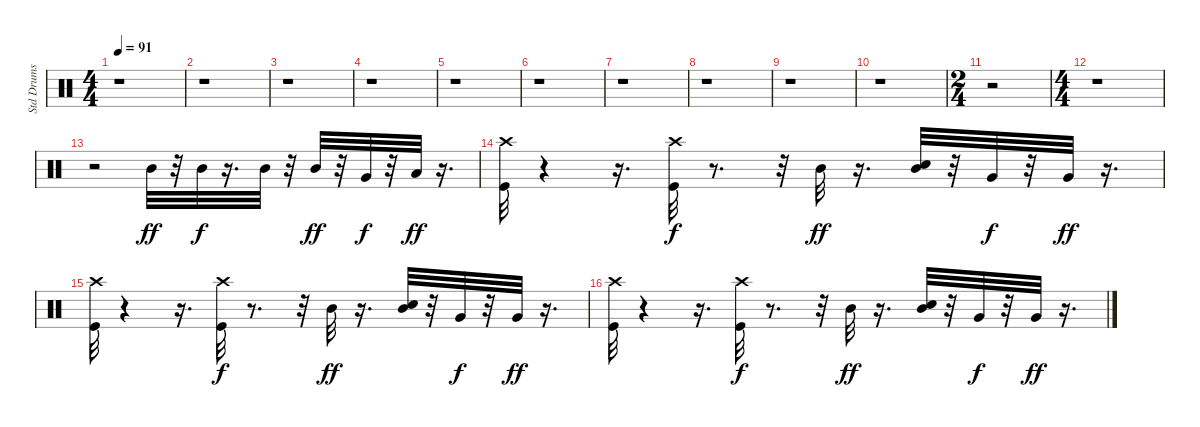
\track ("Std Drums" "Std Drums") {instrument percussion}
\staff {score}
\articulation defaults
\ts (4 4)
\tempo 91
\clef neutral
\ks c
r.1{dy ff} |
r.1 |
r.1 |
r.1 |
r.1 |
r.1 |
r.1 |
r.1 |
r.1 |
r.1 |
\ts (2 4)
r.2 |
\ts (4 4)
r.1 |
r.2 "Mid Tom (hit)".32 r.32 "Mid Tom (hit)".32{dy f} r.16{d} "Mid Tom (hit)".32 r.32 "Mid Tom (hit)".32{dy ff} r.32 "Very Low Tom (hit)".32{dy f} r.32 "Low Tom (hit)".32{dy ff} r.16{d} |
("Kick (hit)" "Crash high (hit)").32 r.4 r.16{d} ("Crash high (hit)" "Kick (hit)").32{dy f} r.8{d} r.32 "Mid Tom (hit)".32{dy ff} r.16{d} ("Snare (hit) 2" "Mid Tom (hit)").32 r.32 "Very Low Tom (hit)".32{dy f} r.32 "Very Low Tom (hit)".32{dy ff} r.16{d} |
("Crash high (hit)" "Kick (hit)").32 r.4 r.16{d} ("Crash high (hit)" "Kick (hit)").32{dy f} r.8{d} r.32 "Mid Tom (hit)".32{dy ff} r.16{d} ("Snare (hit) 2" "Mid Tom (hit)").32 r.32 "Very Low Tom (hit)".32{dy f} r.32 "Very Low Tom (hit)".32{dy ff} r.16{d} |
("Kick (hit)" "Crash high (hit)").32 r.4 r.16{d} ("Crash high (hit)" "Kick (hit)").32{dy f} r.8{d} r.32 "Mid Tom (hit)".32{dy ff} r.16{d} ("Mid Tom (hit)" "Snare (hit) 2").32 r.32 "Very Low Tom (hit)".32{dy f} r.32 "Very Low Tom (hit)".32{dy ff} r.16{d}
